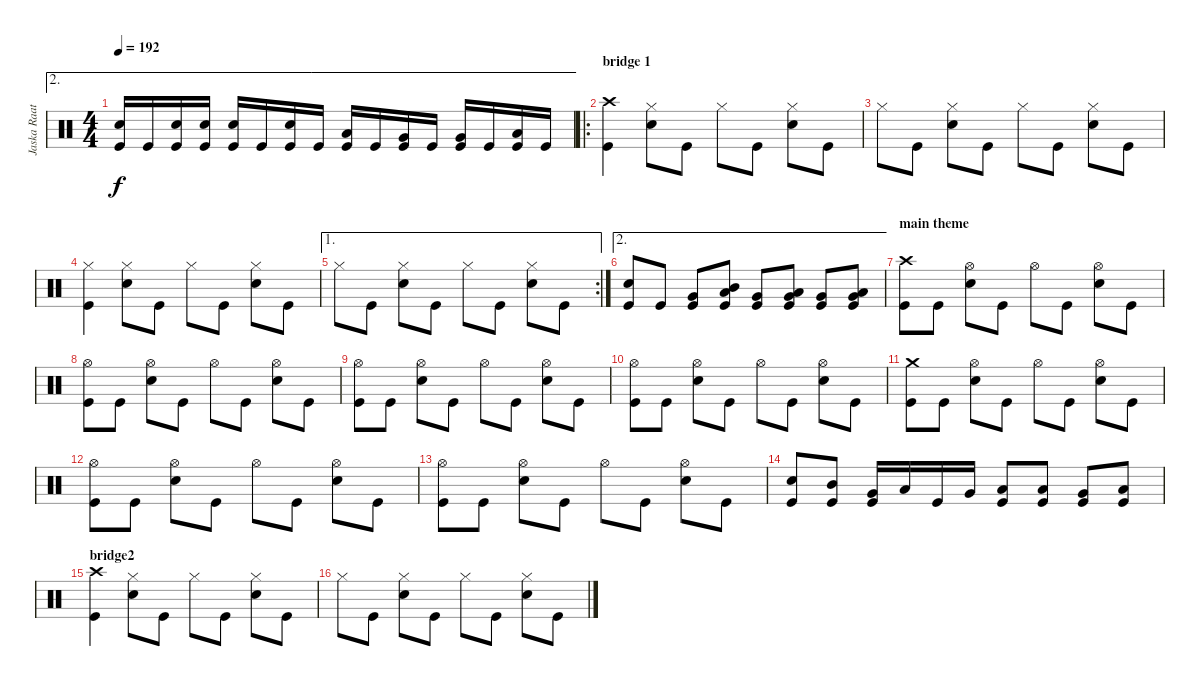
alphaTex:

\track ("Jaska Raatikainen" "Jaska Raat") {instrument percussion}
\staff {score}
\articulation defaults
\ae 2
\ts (4 4)
\tempo 192
\clef neutral
\ks c
("Electric Snare (hit)" "Kick (hit)").16{dy f} "Kick (hit)".16 ("Electric Snare (hit)" "Kick (hit)").16 ("Electric Snare (hit)" "Kick (hit)").16 ("Electric Snare (hit)" "Kick (hit)").16 "Kick (hit)".16 ("Electric Snare (hit)" "Kick (hit)").16 "Kick (hit)".16 ("Low Tom (hit)" "Kick (hit)").16 "Kick (hit)".16 ("Very Low Tom (hit)" "Kick (hit)").16 "Kick (hit)".16 ("Very Low Tom (hit)" "Kick (hit)").16 "Kick (hit)".16 ("Low Floor Tom (hit)" "Kick (hit)").16 "Kick (hit)".16 |
\ro
\section ("" "bridge 1")
("Crash high (hit)" "Kick (hit)").4 ("Hi-Hat (closed)" "Electric Snare (hit)").8 "Kick (hit)".8 "Hi-Hat (closed)".8 "Kick (hit)".8 ("Hi-Hat (closed)" "Electric Snare (hit)").8 "Kick (hit)".8 |
"Hi-Hat (closed)".8 "Kick (hit)".8 ("Hi-Hat (closed)" "Electric Snare (hit)").8 "Kick (hit)".8 "Hi-Hat (closed)".8 "Kick (hit)".8 ("Hi-Hat (closed)" "Electric Snare (hit)").8 "Kick (hit)".8 |
("Hi-Hat (closed)" "Kick (hit)").4 ("Hi-Hat (closed)" "Electric Snare (hit)").8 "Kick (hit)".8 "Hi-Hat (closed)".8 "Kick (hit)".8 ("Hi-Hat (closed)" "Electric Snare (hit)").8 "Kick (hit)".8 |
\ae 1
\rc 2 "Hi-Hat (closed)".8 "Kick (hit)".8
("Hi-Hat (closed)" "Electric Snare (hit)").8 "Kick (hit)".8 "Hi-Hat (closed)".8 "Kick (hit)".8 ("Hi-Hat (closed)" "Electric Snare (hit)").8 "Kick (hit)".8 |
\ae 2
("Electric Snare (hit)" "Kick (hit)").8 "Kick (hit)".8 ("Very Low Tom (hit)" "Kick (hit)").8 ("Mid Tom (hit)" "Low Tom (hit)" "Kick (hit)").8 ("Very Low Tom (hit)" "Kick (hit)").8 ("Low Tom (hit)" "Very Low Tom (hit)" "Kick (hit)").8 ("Very Low Tom (hit)" "Kick (hit)").8 ("Very Low Tom (hit)" "Low Floor Tom (hit)" "Kick (hit)").8 |
\section ("" "main theme")
("Crash high (hit)" "Kick (hit)").8 "Kick (hit)".8 ("Hi-Hat (open)" "Electric Snare (hit)").8 "Kick (hit)".8 "Hi-Hat (open)".8 "Kick (hit)".8 ("Hi-Hat (open)" "Electric Snare (hit)").8 "Kick (hit)".8 |
("Hi-Hat (open)" "Kick (hit)").8 "Kick (hit)".8 ("Hi-Hat (open)" "Electric Snare (hit)").8 "Kick (hit)".8 "Hi-Hat (open)".8 "Kick (hit)".8 ("Hi-Hat (open)" "Electric Snare (hit)").8 "Kick (hit)".8 |
("Hi-Hat (open)" "Kick (hit)").8 "Kick (hit)".8 ("Hi-Hat (open)" "Electric Snare (hit)").8 "Kick (hit)".8 "Hi-Hat (open)".8 "Kick (hit)".8 ("Hi-Hat (open)" "Electric Snare (hit)").8 "Kick (hit)".8 |
("Hi-Hat (open)" "Kick (hit)").8 "Kick (hit)".8 ("Hi-Hat (open)" "Electric Snare (hit)").8 "Kick (hit)".8 "Hi-Hat (open)".8 "Kick (hit)".8 ("Hi-Hat (open)" "Electric Snare (hit)").8 "Kick (hit)".8 |
("Crash medium (hit)" "Kick (hit)").8 "Kick (hit)".8 ("Hi-Hat (open)" "Electric Snare (hit)").8 "Kick (hit)".8 "Hi-Hat (open)".8 "Kick (hit)".8 ("Hi-Hat (open)" "Electric Snare (hit)").8 "Kick (hit)".8 |
("Hi-Hat (open)" "Kick (hit)").8 "Kick (hit)".8 ("Hi-Hat (open)" "Electric Snare (hit)").8 "Kick (hit)".8 "Hi-Hat (open)".8 "Kick (hit)".8 ("Hi-Hat (open)" "Electric Snare (hit)").8 "Kick (hit)".8 |
("Hi-Hat (open)" "Kick (hit)").8 "Kick (hit)".8 ("Hi-Hat (open)" "Electric Snare (hit)").8 "Kick (hit)".8 "Hi-Hat (open)".8 "Kick (hit)".8 ("Hi-Hat (open)" "Electric Snare (hit)").8 "Kick (hit)".8 |
("Electric Snare (hit)" "Kick (hit)").8 ("Mid Tom (hit)" "Kick (hit)").8 ("Very Low Tom (hit)" "Kick (hit)").16 "Low Tom (hit)".16 "Kick (hit)".16 "Very Low Tom (hit)".16 ("Low Tom (hit)" "Kick (hit)").8 ("Low Tom (hit)" "Kick (hit)").8 ("Very Low Tom (hit)" "Kick (hit)").8 ("Low Floor Tom (hit)" "Kick (hit)").8 |
\section ("" "bridge2")
("Crash high (hit)" "Kick (hit)").4 ("Hi-Hat (closed)" "Electric Snare (hit)").8 "Kick (hit)".8 "Hi-Hat (closed)".8 "Kick (hit)".8 ("Hi-Hat (closed)" "Electric Snare (hit)").8 "Kick (hit)".8 |
"Hi-Hat (closed)".8 "Kick (hit)".8 ("Hi-Hat (closed)" "Electric Snare (hit)").8 "Kick (hit)".8 "Hi-Hat (closed)".8 "Kick (hit)".8 ("Hi-Hat (closed)" "Electric Snare (hit)").8 "Kick (hit)".8
